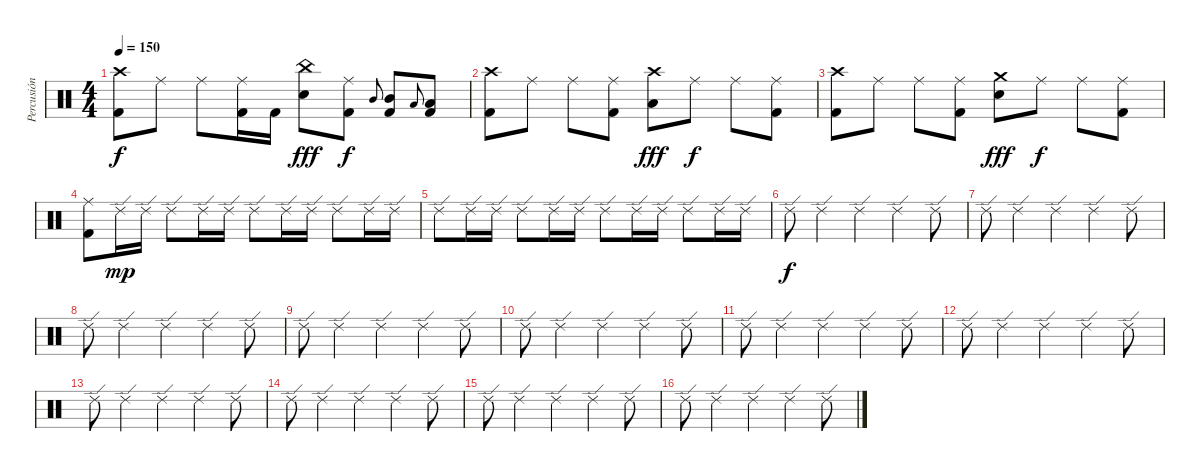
\track ("Percusión" "Percusión") {instrument percussion}
\staff {score}
\articulation defaults
\ts (4 4)
\tempo 150
\clef neutral
\ks c
("Crash high (hit)" "Kick (hit) 2").8{dy f} "Ride (middle)".8 "Ride (middle)".8 ("Ride (middle)" "Kick (hit) 2").16 "Kick (hit) 2".16 ("China (hit)" "Electric Snare (hit)").8{dy fff} ("Ride (middle)" "Kick (hit) 2").8{dy f} "Mid Tom (hit)".8{gr onbeat} ("Mid Tom (hit)" "Kick (hit) 2").8 "Low Tom (hit)".8{gr onbeat} ("Low Tom (hit)" "Kick (hit) 2").8 |
("Crash high (hit)" "Kick (hit) 2").8 "Ride (middle)".8 "Ride (middle)".8 ("Ride (middle)" "Kick (hit) 2").8 ("Crash high (hit)" "Low Tom (hit)").8{dy fff} "Ride (middle)".8{dy f} "Ride (middle)".8 ("Ride (middle)" "Kick (hit) 2").8 |
("Crash high (hit)" "Kick (hit) 2").8 "Ride (middle)".8 "Ride (middle)".8 ("Ride (middle)" "Kick (hit) 2").8 ("Crash medium (hit)" "Electric Snare (hit)").8{dy fff} "Ride (middle)".8{dy f} "Ride (middle)".8 ("Ride (middle)" "Kick (hit) 2").8 |
("Ride (middle)" "Kick (hit) 2").8 "Ride (edge) 2".16{dy mp} "Ride (edge) 2".16 "Ride (edge) 2".8 "Ride (edge) 2".16 "Ride (edge) 2".16 "Ride (edge) 2".8 "Ride (edge) 2".16 "Ride (edge) 2".16 "Ride (edge) 2".8 "Ride (edge) 2".16 "Ride (edge) 2".16 |
"Ride (edge) 2".8 "Ride (edge) 2".16 "Ride (edge) 2".16 "Ride (edge) 2".8 "Ride (edge) 2".16 "Ride (edge) 2".16 "Ride (edge) 2".8 "Ride (edge) 2".16 "Ride (edge) 2".16 "Ride (edge) 2".8 "Ride (edge) 2".16 "Ride (edge) 2".16 |
"Ride (edge) 2".8{dy f volume 5} "Ride (edge) 2".4 "Ride (edge) 2".4 "Ride (edge) 2".4 "Ride (edge) 2".8 |
"Ride (edge) 2".8 "Ride (edge) 2".4 "Ride (edge) 2".4 "Ride (edge) 2".4 "Ride (edge) 2".8 |
"Ride (edge) 2".8 "Ride (edge) 2".4 "Ride (edge) 2".4 "Ride (edge) 2".4 "Ride (edge) 2".8 |
"Ride (edge) 2".8 "Ride (edge) 2".4 "Ride (edge) 2".4 "Ride (edge) 2".4 "Ride (edge) 2".8 |
"Ride (edge) 2".8 "Ride (edge) 2".4 "Ride (edge) 2".4 "Ride (edge) 2".4 "Ride (edge) 2".8 |
"Ride (edge) 2".8 "Ride (edge) 2".4 "Ride (edge) 2".4 "Ride (edge) 2".4 "Ride (edge) 2".8 |
"Ride (edge) 2".8 "Ride (edge) 2".4 "Ride (edge) 2".4 "Ride (edge) 2".4 "Ride (edge) 2".8 |
"Ride (edge) 2".8 "Ride (edge) 2".4 "Ride (edge) 2".4 "Ride (edge) 2".4 "Ride (edge) 2".8 |
"Ride (edge) 2".8 "Ride (edge) 2".4 "Ride (edge) 2".4 "Ride (edge) 2".4 "Ride (edge) 2".8 |
"Ride (edge) 2".8 "Ride (edge) 2".4 "Ride (edge) 2".4 "Ride (edge) 2".4 "Ride (edge) 2".8 |
"Ride (edge) 2".8 "Ride (edge) 2".4 "Ride (edge) 2".4 "Ride (edge) 2".4 "Ride (edge) 2".8
